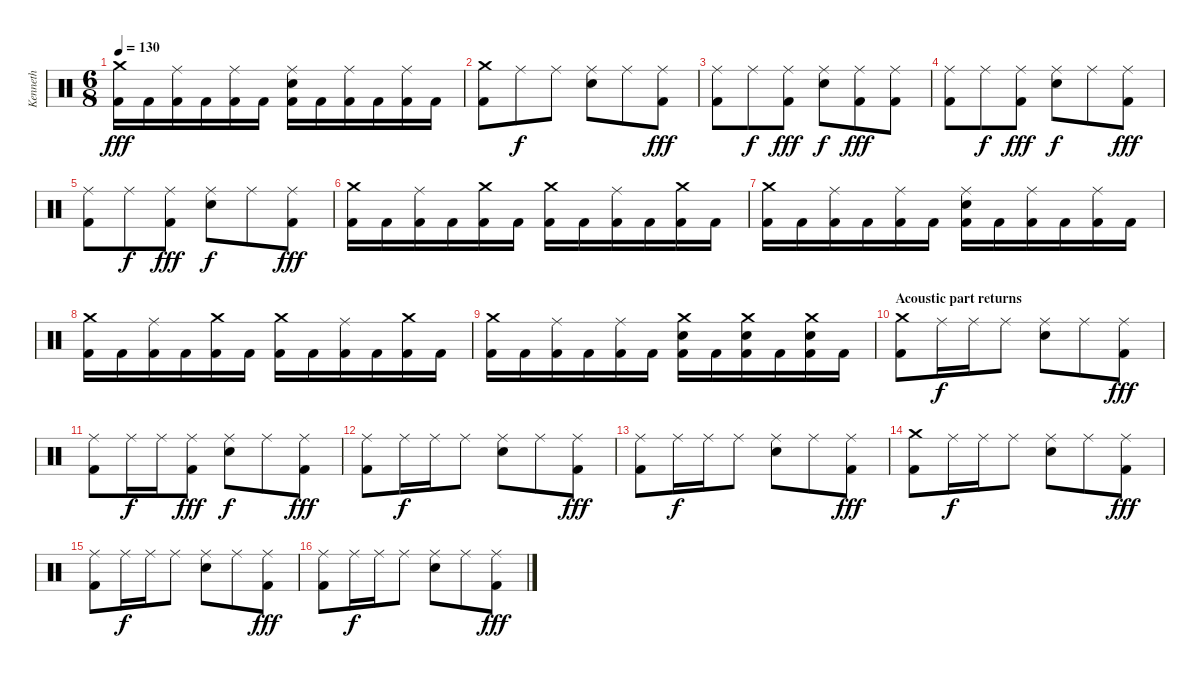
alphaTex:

\track ("Kenneth" "Kenneth") {instrument percussion}
\staff {score}
\articulation defaults
\ts (6 8)
\tempo 130
\clef neutral
\ks c
("Crash medium (hit)" "Kick (hit) 2").16{dy fff} "Kick (hit) 2".16 ("Ride (middle)" "Kick (hit) 2").16 "Kick (hit) 2".16 ("Ride (middle)" "Kick (hit) 2").16 "Kick (hit) 2".16 ("Ride (middle)" "Snare (hit) 2" "Kick (hit) 2").16 "Kick (hit) 2".16 ("Ride (middle)" "Kick (hit) 2").16 "Kick (hit) 2".16 ("Ride (middle)" "Kick (hit) 2").16 "Kick (hit) 2".16 |
("Crash medium (hit)" "Kick (hit) 2").8 "Ride (middle)".8{dy f} "Ride (middle)".8 ("Ride (middle)" "Electric Snare (hit)").8 "Ride (middle)".8 ("Ride (middle)" "Kick (hit) 2").8{dy fff} |
("Ride (middle)" "Kick (hit) 2").8 "Ride (middle)".8{dy f} ("Ride (middle)" "Kick (hit) 2").8{dy fff} ("Ride (middle)" "Electric Snare (hit)").8{dy f} ("Ride (middle)" "Kick (hit) 2").8{dy fff} ("Ride (middle)" "Kick (hit) 2").8 |
("Ride (middle)" "Kick (hit) 2").8 "Ride (middle)".8{dy f} ("Ride (middle)" "Kick (hit) 2").8{dy fff} ("Ride (middle)" "Electric Snare (hit)").8{dy f} "Ride (middle)".8 ("Ride (middle)" "Kick (hit) 2").8{dy fff} |
("Ride (middle)" "Kick (hit) 2").8 "Ride (middle)".8{dy f} ("Ride (middle)" "Kick (hit) 2").8{dy fff} ("Ride (middle)" "Electric Snare (hit)").8{dy f} "Ride (middle)".8 ("Ride (middle)" "Kick (hit) 2").8{dy fff} |
("Crash medium (hit)" "Kick (hit) 2").16 "Kick (hit) 2".16 ("Ride (middle)" "Kick (hit) 2").16 "Kick (hit) 2".16 ("Crash medium (hit)" "Kick (hit) 2").16 "Kick (hit) 2".16 ("Crash medium (hit)" "Kick (hit) 2").16 "Kick (hit) 2".16 ("Ride (middle)" "Kick (hit) 2").16 "Kick (hit) 2".16 ("Crash medium (hit)" "Kick (hit) 2").16 "Kick (hit) 2".16 |
("Crash medium (hit)" "Kick (hit) 2").16 "Kick (hit) 2".16 ("Ride (middle)" "Kick (hit) 2").16 "Kick (hit) 2".16 ("Ride (middle)" "Kick (hit) 2").16 "Kick (hit) 2".16 ("Ride (middle)" "Snare (hit) 2" "Kick (hit) 2").16 "Kick (hit) 2".16 ("Ride (middle)" "Kick (hit) 2").16 "Kick (hit) 2".16 ("Ride (middle)" "Kick (hit) 2").16 "Kick (hit) 2".16 |
("Crash medium (hit)" "Kick (hit) 2").16 "Kick (hit) 2".16 ("Ride (middle)" "Kick (hit) 2").16 "Kick (hit) 2".16 ("Crash medium (hit)" "Kick (hit) 2").16 "Kick (hit) 2".16 ("Crash medium (hit)" "Kick (hit) 2").16 "Kick (hit) 2".16 ("Ride (middle)" "Kick (hit) 2").16 "Kick (hit) 2".16 ("Crash medium (hit)" "Kick (hit) 2").16 "Kick (hit) 2".16 |
("Crash medium (hit)" "Kick (hit) 2").16 "Kick (hit) 2".16 ("Ride (middle)" "Kick (hit) 2").16 "Kick (hit) 2".16 ("Ride (middle)" "Kick (hit) 2").16 "Kick (hit) 2".16 ("Crash medium (hit)" "Electric Snare (hit)" "Kick (hit) 2").16 "Kick (hit) 2".16 ("Crash medium (hit)" "Electric Snare (hit)" "Kick (hit) 2").16 "Kick (hit) 2".16 ("Crash medium (hit)" "Electric Snare (hit)" "Kick (hit) 2").16 "Kick (hit) 2".16 |
\section ("" "Acoustic part returns")
("Crash medium (hit)" "Kick (hit) 2").8 "Ride (middle)".16{dy f} "Ride (middle)".16 "Ride (middle)".8 ("Ride (middle)" "Electric Snare (hit)").8 "Ride (middle)".8 ("Ride (middle)" "Kick (hit) 2").8{dy fff} |
("Ride (middle)" "Kick (hit) 2").8 "Ride (middle)".16{dy f} "Ride (middle)".16 ("Ride (middle)" "Kick (hit) 2").8{dy fff} ("Ride (middle)" "Electric Snare (hit)").8{dy f} "Ride (middle)".8 ("Ride (middle)" "Kick (hit) 2").8{dy fff} |
("Ride (middle)" "Kick (hit) 2").8 "Ride (middle)".16{dy f} "Ride (middle)".16 "Ride (middle)".8 ("Ride (middle)" "Electric Snare (hit)").8 "Ride (middle)".8 ("Ride (middle)" "Kick (hit) 2").8{dy fff} |
("Ride (middle)" "Kick (hit) 2").8 "Ride (middle)".16{dy f} "Ride (middle)".16 "Ride (middle)".8 ("Ride (middle)" "Electric Snare (hit)").8 "Ride (middle)".8 ("Ride (middle)" "Kick (hit) 2").8{dy fff} |
("Crash medium (hit)" "Kick (hit) 2").8 "Ride (middle)".16{dy f} "Ride (middle)".16 "Ride (middle)".8 ("Ride (middle)" "Electric Snare (hit)").8 "Ride (middle)".8 ("Ride (middle)" "Kick (hit) 2").8{dy fff} |
("Ride (middle)" "Kick (hit) 2").8 "Ride (middle)".16{dy f} "Ride (middle)".16 "Ride (middle)".8 ("Ride (middle)" "Electric Snare (hit)").8 "Ride (middle)".8 ("Ride (middle)" "Kick (hit) 2").8{dy fff} |
("Ride (middle)" "Kick (hit) 2").8 "Ride (middle)".16{dy f} "Ride (middle)".16 "Ride (middle)".8 ("Ride (middle)" "Electric Snare (hit)").8 "Ride (middle)".8 ("Ride (middle)" "Kick (hit) 2").8{dy fff}
